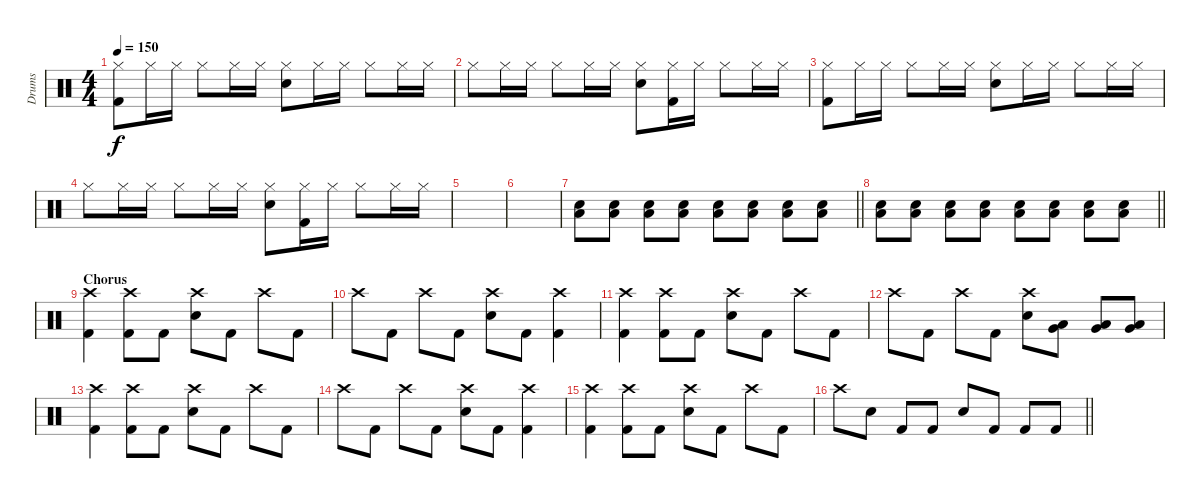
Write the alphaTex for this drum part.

\track ("Drums" "Drums") {instrument percussion}
\staff {score}
\articulation defaults
\ts (4 4)
\tempo 150
\clef neutral
\ks c
("Hi-Hat (closed)" "Kick (hit) 2").8{dy f} "Hi-Hat (closed)".16 "Hi-Hat (closed)".16 "Hi-Hat (closed)".8 "Hi-Hat (closed)".16 "Hi-Hat (closed)".16 ("Hi-Hat (closed)" "Snare (hit) 2").8 "Hi-Hat (closed)".16 "Hi-Hat (closed)".16 "Hi-Hat (closed)".8 "Hi-Hat (closed)".16 "Hi-Hat (closed)".16 |
"Hi-Hat (closed)".8 "Hi-Hat (closed)".16 "Hi-Hat (closed)".16 "Hi-Hat (closed)".8 "Hi-Hat (closed)".16 "Hi-Hat (closed)".16 ("Hi-Hat (closed)" "Snare (hit) 2").8 ("Hi-Hat (closed)" "Kick (hit) 2").16 "Hi-Hat (closed)".16 "Hi-Hat (closed)".8 "Hi-Hat (closed)".16 "Hi-Hat (closed)".16 |
("Hi-Hat (closed)" "Kick (hit) 2").8 "Hi-Hat (closed)".16 "Hi-Hat (closed)".16 "Hi-Hat (closed)".8 "Hi-Hat (closed)".16 "Hi-Hat (closed)".16 ("Hi-Hat (closed)" "Snare (hit) 2").8 "Hi-Hat (closed)".16 "Hi-Hat (closed)".16 "Hi-Hat (closed)".8 "Hi-Hat (closed)".16 "Hi-Hat (closed)".16 |
"Hi-Hat (closed)".8 "Hi-Hat (closed)".16 "Hi-Hat (closed)".16 "Hi-Hat (closed)".8 "Hi-Hat (closed)".16 "Hi-Hat (closed)".16 ("Hi-Hat (closed)" "Snare (hit) 2").8 ("Hi-Hat (closed)" "Kick (hit) 2").16 "Hi-Hat (closed)".16 "Hi-Hat (closed)".8 "Hi-Hat (closed)".16 "Hi-Hat (closed)".16 |
|
|
\barLineRight lightlight
("Snare (hit) 2" "Low Tom (hit)").8 ("Snare (hit) 2" "Low Tom (hit)").8 ("Snare (hit) 2" "Low Tom (hit)").8 ("Snare (hit) 2" "Low Tom (hit)").8 ("Snare (hit) 2" "Low Tom (hit)").8 ("Snare (hit) 2" "Low Tom (hit)").8 ("Snare (hit) 2" "Low Tom (hit)").8 ("Snare (hit) 2" "Low Tom (hit)").8 |
\barLineRight lightlight
("Snare (hit) 2" "Low Tom (hit)").8 ("Snare (hit) 2" "Low Tom (hit)").8 ("Snare (hit) 2" "Low Tom (hit)").8 ("Snare (hit) 2" "Low Tom (hit)").8 ("Snare (hit) 2" "Low Tom (hit)").8 ("Snare (hit) 2" "Low Tom (hit)").8 ("Snare (hit) 2" "Low Tom (hit)").8 ("Snare (hit) 2" "Low Tom (hit)").8 |
\section ("" "Chorus")
("Crash high (hit)" "Kick (hit) 2").4 ("Crash high (hit)" "Kick (hit) 2").8 "Kick (hit) 2".8 ("Crash high (hit)" "Snare (hit) 2").8 "Kick (hit) 2".8 "Crash high (hit)".8 "Kick (hit) 2".8 |
"Crash high (hit)".8 "Kick (hit) 2".8 "Crash high (hit)".8 "Kick (hit) 2".8 ("Crash high (hit)" "Snare (hit) 2").8 "Kick (hit) 2".8 ("Crash high (hit)" "Kick (hit) 2").4 |
("Crash high (hit)" "Kick (hit) 2").4 ("Crash high (hit)" "Kick (hit) 2").8 "Kick (hit) 2".8 ("Crash high (hit)" "Snare (hit) 2").8 "Kick (hit) 2".8 "Crash high (hit)".8 "Kick (hit) 2".8 |
"Crash high (hit)".8 "Kick (hit) 2".8 "Crash high (hit)".8 "Kick (hit) 2".8 ("Crash high (hit)" "Snare (hit) 2").8 ("Very Low Tom (hit)" "Low Tom (hit)").8 ("Very Low Tom (hit)" "Low Tom (hit)").8 ("Very Low Tom (hit)" "Low Tom (hit)").8 |
("Crash high (hit)" "Kick (hit) 2").4 ("Crash high (hit)" "Kick (hit) 2").8 "Kick (hit) 2".8 ("Crash high (hit)" "Snare (hit) 2").8 "Kick (hit) 2".8 "Crash high (hit)".8 "Kick (hit) 2".8 |
"Crash high (hit)".8 "Kick (hit) 2".8 "Crash high (hit)".8 "Kick (hit) 2".8 ("Crash high (hit)" "Snare (hit) 2").8 "Kick (hit) 2".8 ("Crash high (hit)" "Kick (hit) 2").4 |
("Crash high (hit)" "Kick (hit) 2").4 ("Crash high (hit)" "Kick (hit) 2").8 "Kick (hit) 2".8 ("Crash high (hit)" "Snare (hit) 2").8 "Kick (hit) 2".8 "Crash high (hit)".8 "Kick (hit) 2".8 |
\barLineRight lightlight "Crash high (hit)".8 "Snare (hit) 2".8 "Kick (hit) 2".8 "Kick (hit) 2".8 "Snare (hit) 2".8 "Kick (hit) 2".8 "Kick (hit) 2".8 "Kick (hit) 2".8
